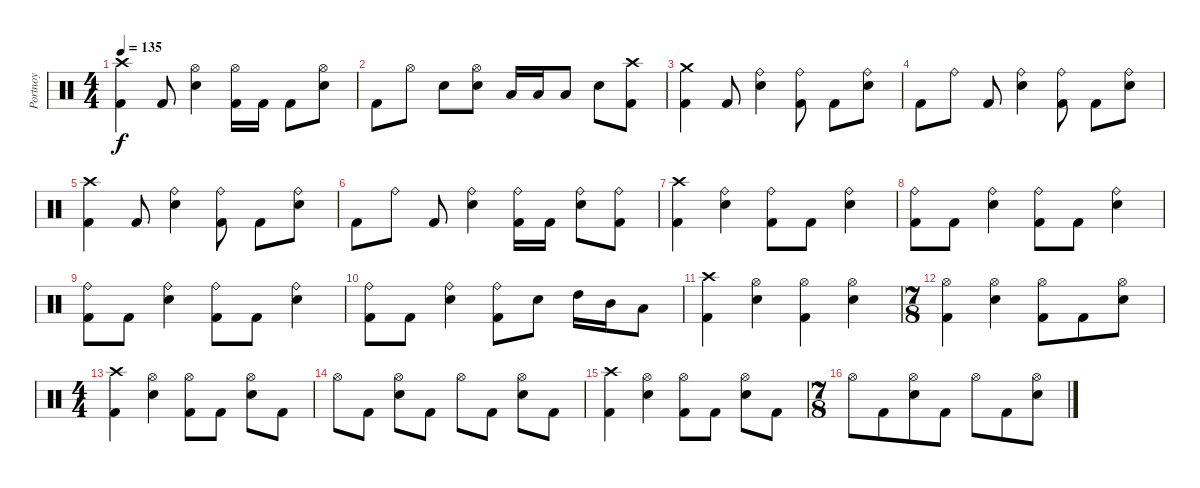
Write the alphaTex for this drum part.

\track ("Portnoy" "Portnoy") {instrument percussion}
\staff {score}
\articulation defaults
\ts (4 4)
\tempo 135
\clef neutral
\ks c
("Kick (hit) 2" "Crash high (hit)").4{dy f} "Kick (hit) 2".8 ("Hi-Hat (open)" "Snare (hit) 2").4 ("Kick (hit) 2" "Hi-Hat (open)").16 "Kick (hit) 2".16 "Kick (hit) 2".8 ("Hi-Hat (open)" "Snare (hit) 2").8 |
"Kick (hit) 2".8 "Hi-Hat (open)".8 "Snare (hit) 2".8 ("Hi-Hat (open)" "Snare (hit) 2").8 "Low Tom (hit)".16 "Low Tom (hit)".16 "Low Tom (hit)".8 "Snare (hit) 2".8 ("Kick (hit) 2" "Crash high (hit)").8 |
("Kick (hit) 2" "Crash medium (hit)").4 "Kick (hit) 2".8 ("Ride (bell)" "Snare (hit) 2").4 ("Kick (hit) 2" "Ride (bell)").8 "Kick (hit) 2".8 ("Ride (bell)" "Snare (hit) 2").8 |
"Kick (hit) 2".8 "Ride (bell)".8 "Kick (hit) 2".8 ("Ride (bell)" "Snare (hit) 2").4 ("Kick (hit) 2" "Ride (bell)").8 "Kick (hit) 2".8 ("Ride (bell)" "Snare (hit) 2").8 |
("Kick (hit) 2" "Crash high (hit)").4 "Kick (hit) 2".8 ("Ride (bell)" "Snare (hit) 2").4 ("Kick (hit) 2" "Ride (bell)").8 "Kick (hit) 2".8 ("Ride (bell)" "Snare (hit) 2").8 |
"Kick (hit) 2".8 "Ride (bell)".8 "Kick (hit) 2".8 ("Ride (bell)" "Snare (hit) 2").4 ("Kick (hit) 2" "Ride (bell)").16 "Kick (hit) 2".16 ("Ride (bell)" "Snare (hit) 2").8 ("Kick (hit) 2" "Ride (bell)").8 |
("Kick (hit) 2" "Crash high (hit)").4 ("Ride (bell)" "Snare (hit) 2").4 ("Kick (hit) 2" "Ride (bell)").8 "Kick (hit) 2".8 ("Ride (bell)" "Snare (hit) 2").4 |
("Kick (hit) 2" "Ride (bell)").8 "Kick (hit) 2".8 ("Ride (bell)" "Snare (hit) 2").4 ("Kick (hit) 2" "Ride (bell)").8 "Kick (hit) 2".8 ("Ride (bell)" "Snare (hit) 2").4 |
("Kick (hit) 2" "Ride (bell)").8 "Kick (hit) 2".8 ("Ride (bell)" "Snare (hit) 2").4 ("Kick (hit) 2" "Ride (bell)").8 "Kick (hit) 2".8 ("Ride (bell)" "Snare (hit) 2").4 |
("Kick (hit) 2" "Ride (bell)").8 "Kick (hit) 2".8 ("Ride (bell)" "Snare (hit) 2").4 ("Kick (hit) 2" "Ride (bell)").8 "Snare (hit) 2".8 "High Tom (hit)".16 "Mid Tom (hit)".16 "Low Tom (hit)".8 |
("Kick (hit) 2" "Crash high (hit)").4 ("Hi-Hat (open)" "Snare (hit) 2").4 ("Kick (hit) 2" "Hi-Hat (open)").4 ("Hi-Hat (open)" "Snare (hit) 2").4 |
\ts (7 8)
("Kick (hit) 2" "Hi-Hat (open)").4 ("Hi-Hat (open)" "Snare (hit) 2").4 ("Kick (hit) 2" "Hi-Hat (open)").8 "Kick (hit) 2".8 ("Hi-Hat (open)" "Snare (hit) 2").8 |
\ts (4 4)
("Kick (hit) 2" "Crash high (hit)").4 ("Hi-Hat (open)" "Snare (hit) 2").4 ("Kick (hit) 2" "Hi-Hat (open)").8 "Kick (hit) 2".8 ("Hi-Hat (open)" "Snare (hit) 2").8 "Kick (hit) 2".8 |
"Hi-Hat (open)".8 "Kick (hit) 2".8 ("Hi-Hat (open)" "Snare (hit) 2").8 "Kick (hit) 2".8 "Hi-Hat (open)".8 "Kick (hit) 2".8 ("Hi-Hat (open)" "Snare (hit) 2").8 "Kick (hit) 2".8 |
("Kick (hit) 2" "Crash high (hit)").4 ("Hi-Hat (open)" "Snare (hit) 2").4 ("Kick (hit) 2" "Hi-Hat (open)").8 "Kick (hit) 2".8 ("Hi-Hat (open)" "Snare (hit) 2").8 "Kick (hit) 2".8 |
\ts (7 8)
"Hi-Hat (open)".8 "Kick (hit) 2".8 ("Hi-Hat (open)" "Snare (hit) 2").8 "Kick (hit) 2".8 "Hi-Hat (open)".8 "Kick (hit) 2".8 ("Hi-Hat (open)" "Snare (hit) 2").8
